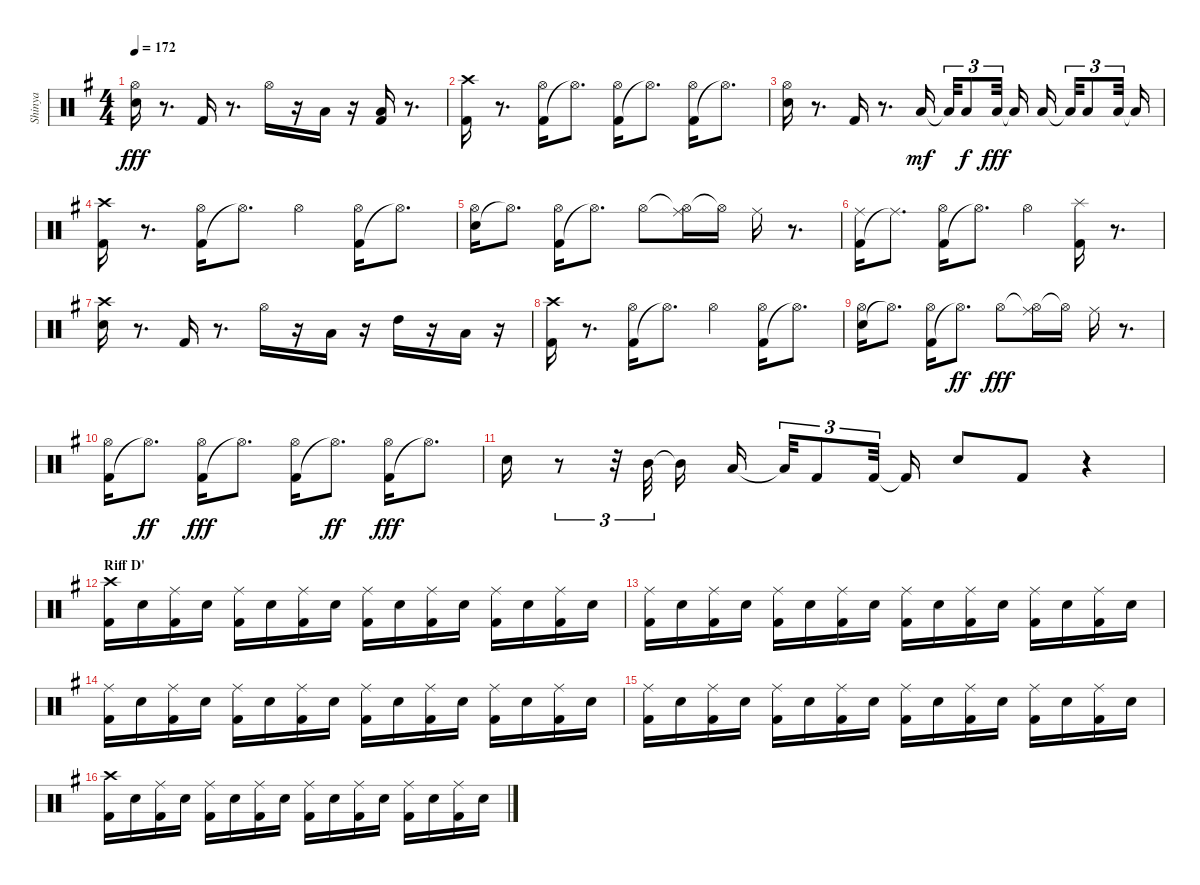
\track ("Shinya" "Shinya") {instrument percussion}
\staff {score}
\articulation defaults
\ts (4 4)
\tempo 172
\clef neutral
\ks eminor
("Snare (hit) 2" "Hi-Hat (open)").16{dy fff} r.8{d} "Kick (hit) 2".16 r.8{d} "Hi-Hat (open)".16 r.16 "Low Tom (hit)".16 r.16 ("Kick (hit) 2" "Low Tom (hit)").16 r.8{d} |
("Kick (hit) 2" "Crash high (hit)").16 r.8{d} ("Kick (hit) 2" "Hi-Hat (open)").16 "Hi-Hat (open)"{t}.8{d} ("Kick (hit) 2" "Hi-Hat (open)").16 "Hi-Hat (open)"{t}.8{d} ("Kick (hit) 2" "Hi-Hat (open)").16 "Hi-Hat (open)"{t}.8{d} |
("Snare (hit) 2" "Hi-Hat (open)").16 r.8{d} "Kick (hit) 2".16 r.8{d} "Low Tom (hit)".16{dy mf} "Low Tom (hit)"{t}.32{tu (3 2)} "Low Tom (hit)".8{tu (3 2) dy f} "Low Tom (hit)".32{tu (3 2) dy fff} "Low Tom (hit)"{t}.16 "Low Tom (hit)".16 "Low Tom (hit)"{t}.32{tu (3 2)} "Low Tom (hit)".8{tu (3 2)} "Low Tom (hit)".32{tu (3 2)} "Low Tom (hit)"{t}.16 |
("Kick (hit) 2" "Crash high (hit)").16 r.8{d} ("Kick (hit) 2" "Hi-Hat (open)").16 "Hi-Hat (open)"{t}.8{d} "Hi-Hat (open)".4 ("Kick (hit) 2" "Hi-Hat (open)").16 "Hi-Hat (open)"{t}.8{d} |
("Snare (hit) 2" "Hi-Hat (open)").16 "Hi-Hat (open)"{t}.8{d} ("Kick (hit) 2" "Hi-Hat (open)").16 "Hi-Hat (open)"{t}.8{d} "Hi-Hat (open)".8 ("Hi-Hat (open)"{t} "Ride (middle)").16 "Hi-Hat (open)"{t}.16 "Ride (middle)".16 r.8{d} |
("Kick (hit) 2" "Ride (middle)").16 "Ride (middle)"{t}.8{d} ("Kick (hit) 2" "Hi-Hat (open)").16 "Hi-Hat (open)"{t}.8{d} "Hi-Hat (open)".4 ("Kick (hit) 2" "Splash (hit)").16 r.8{d} |
("Snare (hit) 2" "Crash high (hit)").16 r.8{d} "Kick (hit) 2".16 r.8{d} "Hi-Hat (open)".16 r.16 "Low Tom (hit)".16 r.16 "High Tom (hit)".16 r.16 "Low Tom (hit)".16 r.16 |
("Kick (hit) 2" "Crash high (hit)").16 r.8{d} ("Kick (hit) 2" "Hi-Hat (open)").16 "Hi-Hat (open)"{t}.8{d} "Hi-Hat (open)".4 ("Kick (hit) 2" "Hi-Hat (open)").16 "Hi-Hat (open)"{t}.8{d} |
("Snare (hit) 2" "Hi-Hat (open)").16 "Hi-Hat (open)"{t}.8{d} ("Kick (hit) 2" "Hi-Hat (open)").16 "Hi-Hat (open)"{t}.8{d dy ff} "Hi-Hat (open)".8{dy fff} ("Hi-Hat (open)"{t} "Ride (middle)").16 "Hi-Hat (open)"{t}.16 "Ride (middle)".16 r.8{d} |
("Kick (hit) 2" "Hi-Hat (open)").16 "Hi-Hat (open)"{t}.8{d dy ff} ("Kick (hit) 2" "Hi-Hat (open)").16{dy fff} "Hi-Hat (open)"{t}.8{d} ("Kick (hit) 2" "Hi-Hat (open)").16 "Hi-Hat (open)"{t}.8{d dy ff} ("Kick (hit) 2" "Hi-Hat (open)").16{dy fff} "Hi-Hat (open)"{t}.8{d} |
"Snare (hit) 2".16 r.8{tu (3 2)} r.32{tu (3 2)} "Mid Tom (hit)".32{tu (3 2)} "Mid Tom (hit)"{t}.16 "Low Tom (hit)".16 "Low Tom (hit)"{t}.32{tu (3 2)} "Kick (hit) 2".8{tu (3 2)} "Kick (hit) 2".32{tu (3 2)} "Kick (hit) 2"{t}.16 "Snare (hit) 2".8 "Kick (hit) 2".8 r.4 |
\section ("" "Riff D'")
("Kick (hit) 2" "Crash high (hit)").16 "Snare (hit) 2".16 ("Kick (hit) 2" "Ride (middle)").16 "Snare (hit) 2".16 ("Kick (hit) 2" "Ride (middle)").16 "Snare (hit) 2".16 ("Kick (hit) 2" "Ride (middle)").16 "Snare (hit) 2".16 ("Kick (hit) 2" "Ride (middle)").16 "Snare (hit) 2".16 ("Kick (hit) 2" "Ride (middle)").16 "Snare (hit) 2".16 ("Kick (hit) 2" "Ride (middle)").16 "Snare (hit) 2".16 ("Kick (hit) 2" "Ride (middle)").16 "Snare (hit) 2".16 |
("Kick (hit) 2" "Ride (middle)").16 "Snare (hit) 2".16 ("Kick (hit) 2" "Ride (middle)").16 "Snare (hit) 2".16 ("Kick (hit) 2" "Ride (middle)").16 "Snare (hit) 2".16 ("Kick (hit) 2" "Ride (middle)").16 "Snare (hit) 2".16 ("Kick (hit) 2" "Ride (middle)").16 "Snare (hit) 2".16 ("Kick (hit) 2" "Ride (middle)").16 "Snare (hit) 2".16 ("Kick (hit) 2" "Ride (middle)").16 "Snare (hit) 2".16 ("Kick (hit) 2" "Ride (middle)").16 "Snare (hit) 2".16 |
("Kick (hit) 2" "Ride (middle)").16 "Snare (hit) 2".16 ("Kick (hit) 2" "Ride (middle)").16 "Snare (hit) 2".16 ("Kick (hit) 2" "Ride (middle)").16 "Snare (hit) 2".16 ("Kick (hit) 2" "Ride (middle)").16 "Snare (hit) 2".16 ("Kick (hit) 2" "Ride (middle)").16 "Snare (hit) 2".16 ("Kick (hit) 2" "Ride (middle)").16 "Snare (hit) 2".16 ("Kick (hit) 2" "Ride (middle)").16 "Snare (hit) 2".16 ("Kick (hit) 2" "Ride (middle)").16 "Snare (hit) 2".16 |
("Kick (hit) 2" "Ride (middle)").16 "Snare (hit) 2".16 ("Kick (hit) 2" "Ride (middle)").16 "Snare (hit) 2".16 ("Kick (hit) 2" "Ride (middle)").16 "Snare (hit) 2".16 ("Kick (hit) 2" "Ride (middle)").16 "Snare (hit) 2".16 ("Kick (hit) 2" "Ride (middle)").16 "Snare (hit) 2".16 ("Kick (hit) 2" "Ride (middle)").16 "Snare (hit) 2".16 ("Kick (hit) 2" "Ride (middle)").16 "Snare (hit) 2".16 ("Kick (hit) 2" "Ride (middle)").16 "Snare (hit) 2".16 |
("Kick (hit) 2" "Crash high (hit)").16 "Snare (hit) 2".16 ("Kick (hit) 2" "Ride (middle)").16 "Snare (hit) 2".16 ("Kick (hit) 2" "Ride (middle)").16 "Snare (hit) 2".16 ("Kick (hit) 2" "Ride (middle)").16 "Snare (hit) 2".16 ("Kick (hit) 2" "Ride (middle)").16 "Snare (hit) 2".16 ("Kick (hit) 2" "Ride (middle)").16 "Snare (hit) 2".16 ("Kick (hit) 2" "Ride (middle)").16 "Snare (hit) 2".16 ("Kick (hit) 2" "Ride (middle)").16 "Snare (hit) 2".16
